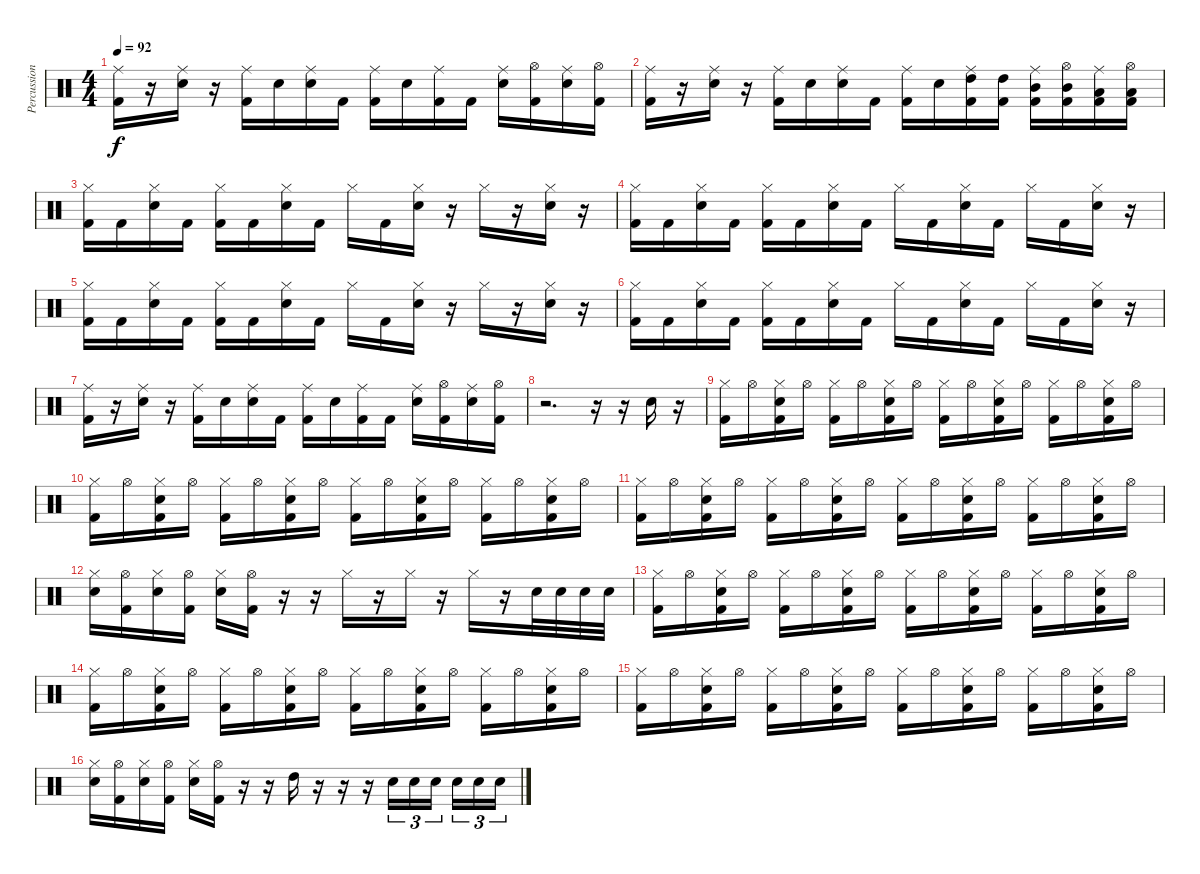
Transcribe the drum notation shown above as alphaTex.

\track ("Percussion" "Percussion") {instrument percussion}
\staff {score}
\articulation defaults
\ts (4 4)
\tempo 92
\clef neutral
\ks c
("Ride (middle)" "Kick (hit) 2").16{dy f} r.16 ("Ride (middle)" "Electric Snare (hit)").16 r.16 ("Ride (middle)" "Kick (hit) 2").16 "Electric Snare (hit)".16 ("Ride (middle)" "Electric Snare (hit)").16 "Kick (hit) 2".16 ("Ride (middle)" "Kick (hit) 2").16 "Electric Snare (hit)".16 ("Ride (middle)" "Kick (hit) 2").16 "Kick (hit) 2".16 ("Ride (middle)" "Electric Snare (hit)").16 ("Hi-Hat (open)" "Kick (hit) 2").16 ("Ride (middle)" "Electric Snare (hit)").16 ("Hi-Hat (open)" "Kick (hit) 2").16 |
("Ride (middle)" "Kick (hit) 2").16 r.16 ("Ride (middle)" "Electric Snare (hit)").16 r.16 ("Ride (middle)" "Kick (hit) 2").16 "Electric Snare (hit)".16 ("Ride (middle)" "Electric Snare (hit)").16 "Kick (hit) 2".16 ("Ride (middle)" "Kick (hit) 2").16 "Electric Snare (hit)".16 ("Ride (middle)" "High Tom (hit)" "Kick (hit) 2").16 ("High Tom (hit)" "Kick (hit) 2").16 ("Ride (middle)" "Mid Tom (hit)" "Kick (hit) 2").16 ("Hi-Hat (open)" "Mid Tom (hit)" "Kick (hit) 2").16 ("Ride (middle)" "Low Tom (hit)" "Kick (hit) 2").16 ("Hi-Hat (open)" "Low Tom (hit)" "Kick (hit) 2").16 |
("Hi-Hat (closed)" "Kick (hit) 2").16 "Kick (hit) 2".16 ("Hi-Hat (closed)" "Electric Snare (hit)").16 "Kick (hit) 2".16 ("Hi-Hat (closed)" "Kick (hit) 2").16 "Kick (hit) 2".16 ("Hi-Hat (closed)" "Electric Snare (hit)").16 "Kick (hit) 2".16 "Hi-Hat (closed)".16 "Kick (hit) 2".16 ("Hi-Hat (closed)" "Electric Snare (hit)").16 r.16 "Hi-Hat (closed)".16 r.16 ("Hi-Hat (closed)" "Electric Snare (hit)").16 r.16 |
("Hi-Hat (closed)" "Kick (hit) 2").16 "Kick (hit) 2".16 ("Hi-Hat (closed)" "Electric Snare (hit)").16 "Kick (hit) 2".16 ("Hi-Hat (closed)" "Kick (hit) 2").16 "Kick (hit) 2".16 ("Hi-Hat (closed)" "Electric Snare (hit)").16 "Kick (hit) 2".16 "Hi-Hat (closed)".16 "Kick (hit) 2".16 ("Hi-Hat (closed)" "Electric Snare (hit)").16 "Kick (hit) 2".16 "Hi-Hat (closed)".16 "Kick (hit) 2".16 ("Hi-Hat (closed)" "Electric Snare (hit)").16 r.16 |
("Hi-Hat (closed)" "Kick (hit) 2").16 "Kick (hit) 2".16 ("Hi-Hat (closed)" "Electric Snare (hit)").16 "Kick (hit) 2".16 ("Hi-Hat (closed)" "Kick (hit) 2").16 "Kick (hit) 2".16 ("Hi-Hat (closed)" "Electric Snare (hit)").16 "Kick (hit) 2".16 "Hi-Hat (closed)".16 "Kick (hit) 2".16 ("Hi-Hat (closed)" "Electric Snare (hit)").16 r.16 "Hi-Hat (closed)".16 r.16 ("Hi-Hat (closed)" "Electric Snare (hit)").16 r.16 |
("Hi-Hat (closed)" "Kick (hit) 2").16 "Kick (hit) 2".16 ("Hi-Hat (closed)" "Electric Snare (hit)").16 "Kick (hit) 2".16 ("Hi-Hat (closed)" "Kick (hit) 2").16 "Kick (hit) 2".16 ("Hi-Hat (closed)" "Electric Snare (hit)").16 "Kick (hit) 2".16 "Hi-Hat (closed)".16 "Kick (hit) 2".16 ("Hi-Hat (closed)" "Electric Snare (hit)").16 "Kick (hit) 2".16 "Hi-Hat (closed)".16 "Kick (hit) 2".16 ("Hi-Hat (closed)" "Electric Snare (hit)").16 r.16 |
("Ride (middle)" "Kick (hit) 2").16 r.16 ("Ride (middle)" "Electric Snare (hit)").16 r.16 ("Ride (middle)" "Kick (hit) 2").16 "Electric Snare (hit)".16 ("Ride (middle)" "Electric Snare (hit)").16 "Kick (hit) 2".16 ("Ride (middle)" "Kick (hit) 2").16 "Electric Snare (hit)".16 ("Ride (middle)" "Kick (hit) 2").16 "Kick (hit) 2".16 ("Ride (middle)" "Electric Snare (hit)").16 ("Hi-Hat (open)" "Kick (hit) 2").16 ("Ride (middle)" "Electric Snare (hit)").16 ("Hi-Hat (open)" "Kick (hit) 2").16 |
r.2{d} r.16 r.16 "Electric Snare (hit)".16 r.16 |
("Hi-Hat (closed)" "Kick (hit) 2").16 "Hi-Hat (open)".16 ("Hi-Hat (closed)" "Electric Snare (hit)" "Kick (hit) 2").16 "Hi-Hat (open)".16 ("Hi-Hat (closed)" "Kick (hit) 2").16 "Hi-Hat (open)".16 ("Hi-Hat (closed)" "Electric Snare (hit)" "Kick (hit) 2").16 "Hi-Hat (open)".16 ("Hi-Hat (closed)" "Kick (hit) 2").16 "Hi-Hat (open)".16 ("Hi-Hat (closed)" "Electric Snare (hit)" "Kick (hit) 2").16 "Hi-Hat (open)".16 ("Hi-Hat (closed)" "Kick (hit) 2").16 "Hi-Hat (open)".16 ("Hi-Hat (closed)" "Electric Snare (hit)" "Kick (hit) 2").16 "Hi-Hat (open)".16 |
("Hi-Hat (closed)" "Kick (hit) 2").16 "Hi-Hat (open)".16 ("Hi-Hat (closed)" "Electric Snare (hit)" "Kick (hit) 2").16 "Hi-Hat (open)".16 ("Hi-Hat (closed)" "Kick (hit) 2").16 "Hi-Hat (open)".16 ("Hi-Hat (closed)" "Electric Snare (hit)" "Kick (hit) 2").16 "Hi-Hat (open)".16 ("Hi-Hat (closed)" "Kick (hit) 2").16 "Hi-Hat (open)".16 ("Hi-Hat (closed)" "Electric Snare (hit)" "Kick (hit) 2").16 "Hi-Hat (open)".16 ("Hi-Hat (closed)" "Kick (hit) 2").16 "Hi-Hat (open)".16 ("Hi-Hat (closed)" "Electric Snare (hit)" "Kick (hit) 2").16 "Hi-Hat (open)".16 |
("Hi-Hat (closed)" "Kick (hit) 2").16 "Hi-Hat (open)".16 ("Hi-Hat (closed)" "Electric Snare (hit)" "Kick (hit) 2").16 "Hi-Hat (open)".16 ("Hi-Hat (closed)" "Kick (hit) 2").16 "Hi-Hat (open)".16 ("Hi-Hat (closed)" "Electric Snare (hit)" "Kick (hit) 2").16 "Hi-Hat (open)".16 ("Hi-Hat (closed)" "Kick (hit) 2").16 "Hi-Hat (open)".16 ("Hi-Hat (closed)" "Electric Snare (hit)" "Kick (hit) 2").16 "Hi-Hat (open)".16 ("Hi-Hat (closed)" "Kick (hit) 2").16 "Hi-Hat (open)".16 ("Hi-Hat (closed)" "Electric Snare (hit)" "Kick (hit) 2").16 "Hi-Hat (open)".16 |
("Hi-Hat (closed)" "Electric Snare (hit)").16 ("Hi-Hat (open)" "Kick (hit) 2").16 ("Hi-Hat (closed)" "Electric Snare (hit)").16 ("Hi-Hat (open)" "Kick (hit) 2").16 ("Hi-Hat (closed)" "Electric Snare (hit)").16 ("Hi-Hat (open)" "Kick (hit) 2").16 r.16 r.16 "Hi-Hat (closed)".16 r.16 "Hi-Hat (closed)".16 r.16 "Hi-Hat (closed)".16 r.16 "Electric Snare (hit)".32 "Electric Snare (hit)".32 "Electric Snare (hit)".32 "Electric Snare (hit)".32 |
("Hi-Hat (closed)" "Kick (hit) 2").16 "Hi-Hat (open)".16 ("Hi-Hat (closed)" "Electric Snare (hit)" "Kick (hit) 2").16 "Hi-Hat (open)".16 ("Hi-Hat (closed)" "Kick (hit) 2").16 "Hi-Hat (open)".16 ("Hi-Hat (closed)" "Electric Snare (hit)" "Kick (hit) 2").16 "Hi-Hat (open)".16 ("Hi-Hat (closed)" "Kick (hit) 2").16 "Hi-Hat (open)".16 ("Hi-Hat (closed)" "Electric Snare (hit)" "Kick (hit) 2").16 "Hi-Hat (open)".16 ("Hi-Hat (closed)" "Kick (hit) 2").16 "Hi-Hat (open)".16 ("Hi-Hat (closed)" "Electric Snare (hit)" "Kick (hit) 2").16 "Hi-Hat (open)".16 |
("Hi-Hat (closed)" "Kick (hit) 2").16 "Hi-Hat (open)".16 ("Hi-Hat (closed)" "Electric Snare (hit)" "Kick (hit) 2").16 "Hi-Hat (open)".16 ("Hi-Hat (closed)" "Kick (hit) 2").16 "Hi-Hat (open)".16 ("Hi-Hat (closed)" "Electric Snare (hit)" "Kick (hit) 2").16 "Hi-Hat (open)".16 ("Hi-Hat (closed)" "Kick (hit) 2").16 "Hi-Hat (open)".16 ("Hi-Hat (closed)" "Electric Snare (hit)" "Kick (hit) 2").16 "Hi-Hat (open)".16 ("Hi-Hat (closed)" "Kick (hit) 2").16 "Hi-Hat (open)".16 ("Hi-Hat (closed)" "Electric Snare (hit)" "Kick (hit) 2").16 "Hi-Hat (open)".16 |
("Hi-Hat (closed)" "Kick (hit) 2").16 "Hi-Hat (open)".16 ("Hi-Hat (closed)" "Electric Snare (hit)" "Kick (hit) 2").16 "Hi-Hat (open)".16 ("Hi-Hat (closed)" "Kick (hit) 2").16 "Hi-Hat (open)".16 ("Hi-Hat (closed)" "Electric Snare (hit)" "Kick (hit) 2").16 "Hi-Hat (open)".16 ("Hi-Hat (closed)" "Kick (hit) 2").16 "Hi-Hat (open)".16 ("Hi-Hat (closed)" "Electric Snare (hit)" "Kick (hit) 2").16 "Hi-Hat (open)".16 ("Hi-Hat (closed)" "Kick (hit) 2").16 "Hi-Hat (open)".16 ("Hi-Hat (closed)" "Electric Snare (hit)" "Kick (hit) 2").16 "Hi-Hat (open)".16 |
("Hi-Hat (closed)" "Electric Snare (hit)").16 ("Hi-Hat (open)" "Kick (hit) 2").16 ("Hi-Hat (closed)" "Electric Snare (hit)").16 ("Hi-Hat (open)" "Kick (hit) 2").16 ("Hi-Hat (closed)" "Electric Snare (hit)").16 ("Hi-Hat (open)" "Kick (hit) 2").16 r.16 r.16 "High Tom (hit)".16 r.16 r.16 r.16 "Electric Snare (hit)".16{tu (3 2)} "Electric Snare (hit)".16{tu (3 2)} "Electric Snare (hit)".16{tu (3 2) beam splitsecondary} "Electric Snare (hit)".16{tu (3 2)} "Electric Snare (hit)".16{tu (3 2)} "Electric Snare (hit)".16{tu (3 2)}
